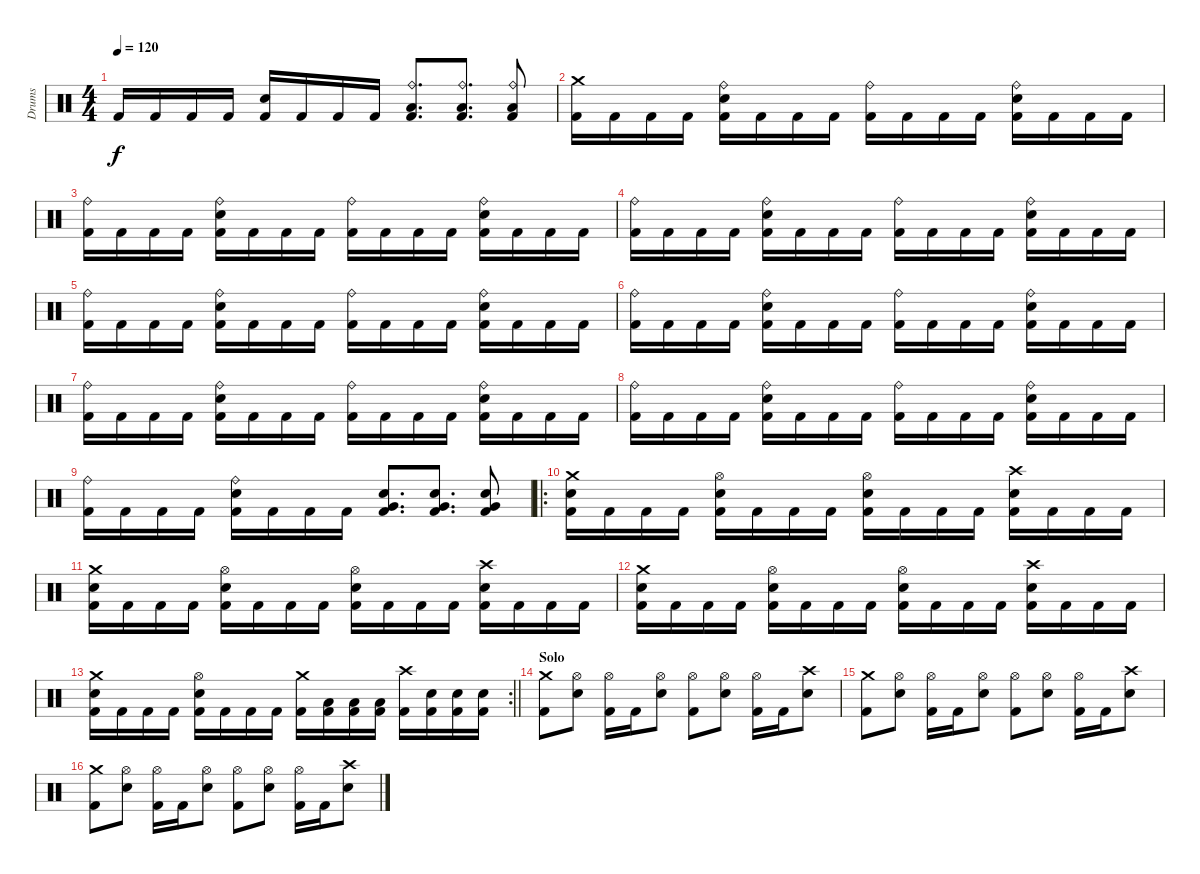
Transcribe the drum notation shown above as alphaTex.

\track ("Drums" "Drums") {instrument percussion}
\staff {score}
\articulation defaults
\ts (4 4)
\tempo 120
\clef neutral
\ks c "Kick (hit) 2".16{dy f} "Kick (hit) 2".16 "Kick (hit) 2".16 "Kick (hit) 2".16
("Electric Snare (hit)" "Kick (hit) 2").16 "Kick (hit) 2".16 "Kick (hit) 2".16 "Kick (hit) 2".16 ("Ride (bell)" "Low Floor Tom (hit)" "Kick (hit) 2").8{d} ("Ride (bell)" "Low Floor Tom (hit)" "Kick (hit) 2").8{d} ("Ride (bell)" "Low Floor Tom (hit)" "Kick (hit) 2").8 |
("Crash medium (hit)" "Kick (hit) 2").16 "Kick (hit) 2".16 "Kick (hit) 2".16 "Kick (hit) 2".16 ("Ride (bell)" "Electric Snare (hit)" "Kick (hit) 2").16 "Kick (hit) 2".16 "Kick (hit) 2".16 "Kick (hit) 2".16 ("Ride (bell)" "Kick (hit) 2").16 "Kick (hit) 2".16 "Kick (hit) 2".16 "Kick (hit) 2".16 ("Ride (bell)" "Electric Snare (hit)" "Kick (hit) 2").16 "Kick (hit) 2".16 "Kick (hit) 2".16 "Kick (hit) 2".16 |
("Ride (bell)" "Kick (hit) 2").16 "Kick (hit) 2".16 "Kick (hit) 2".16 "Kick (hit) 2".16 ("Ride (bell)" "Electric Snare (hit)" "Kick (hit) 2").16 "Kick (hit) 2".16 "Kick (hit) 2".16 "Kick (hit) 2".16 ("Ride (bell)" "Kick (hit) 2").16 "Kick (hit) 2".16 "Kick (hit) 2".16 "Kick (hit) 2".16 ("Ride (bell)" "Electric Snare (hit)" "Kick (hit) 2").16 "Kick (hit) 2".16 "Kick (hit) 2".16 "Kick (hit) 2".16 |
("Ride (bell)" "Kick (hit) 2").16 "Kick (hit) 2".16 "Kick (hit) 2".16 "Kick (hit) 2".16 ("Ride (bell)" "Electric Snare (hit)" "Kick (hit) 2").16 "Kick (hit) 2".16 "Kick (hit) 2".16 "Kick (hit) 2".16 ("Ride (bell)" "Kick (hit) 2").16 "Kick (hit) 2".16 "Kick (hit) 2".16 "Kick (hit) 2".16 ("Ride (bell)" "Electric Snare (hit)" "Kick (hit) 2").16 "Kick (hit) 2".16 "Kick (hit) 2".16 "Kick (hit) 2".16 |
("Ride (bell)" "Kick (hit) 2").16 "Kick (hit) 2".16 "Kick (hit) 2".16 "Kick (hit) 2".16 ("Ride (bell)" "Electric Snare (hit)" "Kick (hit) 2").16 "Kick (hit) 2".16 "Kick (hit) 2".16 "Kick (hit) 2".16 ("Ride (bell)" "Kick (hit) 2").16 "Kick (hit) 2".16 "Kick (hit) 2".16 "Kick (hit) 2".16 ("Ride (bell)" "Electric Snare (hit)" "Kick (hit) 2").16 "Kick (hit) 2".16 "Kick (hit) 2".16 "Kick (hit) 2".16 |
("Ride (bell)" "Kick (hit) 2").16 "Kick (hit) 2".16 "Kick (hit) 2".16 "Kick (hit) 2".16 ("Ride (bell)" "Electric Snare (hit)" "Kick (hit) 2").16 "Kick (hit) 2".16 "Kick (hit) 2".16 "Kick (hit) 2".16 ("Ride (bell)" "Kick (hit) 2").16 "Kick (hit) 2".16 "Kick (hit) 2".16 "Kick (hit) 2".16 ("Ride (bell)" "Electric Snare (hit)" "Kick (hit) 2").16 "Kick (hit) 2".16 "Kick (hit) 2".16 "Kick (hit) 2".16 |
("Ride (bell)" "Kick (hit) 2").16 "Kick (hit) 2".16 "Kick (hit) 2".16 "Kick (hit) 2".16 ("Ride (bell)" "Electric Snare (hit)" "Kick (hit) 2").16 "Kick (hit) 2".16 "Kick (hit) 2".16 "Kick (hit) 2".16 ("Ride (bell)" "Kick (hit) 2").16 "Kick (hit) 2".16 "Kick (hit) 2".16 "Kick (hit) 2".16 ("Ride (bell)" "Electric Snare (hit)" "Kick (hit) 2").16 "Kick (hit) 2".16 "Kick (hit) 2".16 "Kick (hit) 2".16 |
("Ride (bell)" "Kick (hit) 2").16 "Kick (hit) 2".16 "Kick (hit) 2".16 "Kick (hit) 2".16 ("Ride (bell)" "Electric Snare (hit)" "Kick (hit) 2").16 "Kick (hit) 2".16 "Kick (hit) 2".16 "Kick (hit) 2".16 ("Ride (bell)" "Kick (hit) 2").16 "Kick (hit) 2".16 "Kick (hit) 2".16 "Kick (hit) 2".16 ("Ride (bell)" "Electric Snare (hit)" "Kick (hit) 2").16 "Kick (hit) 2".16 "Kick (hit) 2".16 "Kick (hit) 2".16 |
("Ride (bell)" "Kick (hit) 2").16 "Kick (hit) 2".16 "Kick (hit) 2".16 "Kick (hit) 2".16 ("Ride (bell)" "Electric Snare (hit)" "Kick (hit) 2").16 "Kick (hit) 2".16 "Kick (hit) 2".16 "Kick (hit) 2".16 ("Electric Snare (hit)" "Very Low Tom (hit)" "Kick (hit) 2").8{d} ("Electric Snare (hit)" "Very Low Tom (hit)" "Kick (hit) 2").8{d} ("Electric Snare (hit)" "Very Low Tom (hit)" "Kick (hit) 2").8 |
\ro
("Crash medium (hit)" "Electric Snare (hit)" "Kick (hit) 2").16 "Kick (hit) 2".16 "Kick (hit) 2".16 "Kick (hit) 2".16 ("Hi-Hat (open)" "Electric Snare (hit)" "Kick (hit) 2").16 "Kick (hit) 2".16 "Kick (hit) 2".16 "Kick (hit) 2".16 ("Hi-Hat (open)" "Electric Snare (hit)" "Kick (hit) 2").16 "Kick (hit) 2".16 "Kick (hit) 2".16 "Kick (hit) 2".16 ("Crash high (hit)" "Electric Snare (hit)" "Kick (hit) 2").16 "Kick (hit) 2".16 "Kick (hit) 2".16 "Kick (hit) 2".16 |
("Crash medium (hit)" "Electric Snare (hit)" "Kick (hit) 2").16 "Kick (hit) 2".16 "Kick (hit) 2".16 "Kick (hit) 2".16 ("Hi-Hat (open)" "Electric Snare (hit)" "Kick (hit) 2").16 "Kick (hit) 2".16 "Kick (hit) 2".16 "Kick (hit) 2".16 ("Hi-Hat (open)" "Electric Snare (hit)" "Kick (hit) 2").16 "Kick (hit) 2".16 "Kick (hit) 2".16 "Kick (hit) 2".16 ("Crash high (hit)" "Electric Snare (hit)" "Kick (hit) 2").16 "Kick (hit) 2".16 "Kick (hit) 2".16 "Kick (hit) 2".16 |
("Crash medium (hit)" "Electric Snare (hit)" "Kick (hit) 2").16 "Kick (hit) 2".16 "Kick (hit) 2".16 "Kick (hit) 2".16 ("Hi-Hat (open)" "Electric Snare (hit)" "Kick (hit) 2").16 "Kick (hit) 2".16 "Kick (hit) 2".16 "Kick (hit) 2".16 ("Hi-Hat (open)" "Electric Snare (hit)" "Kick (hit) 2").16 "Kick (hit) 2".16 "Kick (hit) 2".16 "Kick (hit) 2".16 ("Crash high (hit)" "Electric Snare (hit)" "Kick (hit) 2").16 "Kick (hit) 2".16 "Kick (hit) 2".16 "Kick (hit) 2".16 |
\rc 2
\barLineRight lightlight
("Crash medium (hit)" "Electric Snare (hit)" "Kick (hit) 2").16 "Kick (hit) 2".16 "Kick (hit) 2".16 "Kick (hit) 2".16 ("Hi-Hat (open)" "Electric Snare (hit)" "Kick (hit) 2").16 "Kick (hit) 2".16 "Kick (hit) 2".16 "Kick (hit) 2".16 ("Crash medium (hit)" "Kick (hit) 2").16 ("Low Tom (hit)" "Kick (hit) 2").16 ("Low Tom (hit)" "Kick (hit) 2").16 ("Low Tom (hit)" "Kick (hit) 2").16 ("Crash high (hit)" "Kick (hit) 2").16 ("Electric Snare (hit)" "Kick (hit) 2").16 ("Electric Snare (hit)" "Kick (hit) 2").16 ("Electric Snare (hit)" "Kick (hit) 2").16 |
\section ("" "Solo")
("Crash medium (hit)" "Kick (hit) 2").8 ("Hi-Hat (open)" "Electric Snare (hit)").8 ("Hi-Hat (open)" "Kick (hit) 2").16 "Kick (hit) 2".16 ("Hi-Hat (open)" "Electric Snare (hit)").8 ("Hi-Hat (open)" "Kick (hit) 2").8 ("Hi-Hat (open)" "Electric Snare (hit)").8 ("Hi-Hat (open)" "Kick (hit) 2").16 "Kick (hit) 2".16 ("Crash high (hit)" "Electric Snare (hit)").8 |
("Crash medium (hit)" "Kick (hit) 2").8 ("Hi-Hat (open)" "Electric Snare (hit)").8 ("Hi-Hat (open)" "Kick (hit) 2").16 "Kick (hit) 2".16 ("Hi-Hat (open)" "Electric Snare (hit)").8 ("Hi-Hat (open)" "Kick (hit) 2").8 ("Hi-Hat (open)" "Electric Snare (hit)").8 ("Hi-Hat (open)" "Kick (hit) 2").16 "Kick (hit) 2".16 ("Crash high (hit)" "Electric Snare (hit)").8 |
("Crash medium (hit)" "Kick (hit) 2").8 ("Hi-Hat (open)" "Electric Snare (hit)").8 ("Hi-Hat (open)" "Kick (hit) 2").16 "Kick (hit) 2".16 ("Hi-Hat (open)" "Electric Snare (hit)").8 ("Hi-Hat (open)" "Kick (hit) 2").8 ("Hi-Hat (open)" "Electric Snare (hit)").8 ("Hi-Hat (open)" "Kick (hit) 2").16 "Kick (hit) 2".16 ("Crash high (hit)" "Electric Snare (hit)").8
